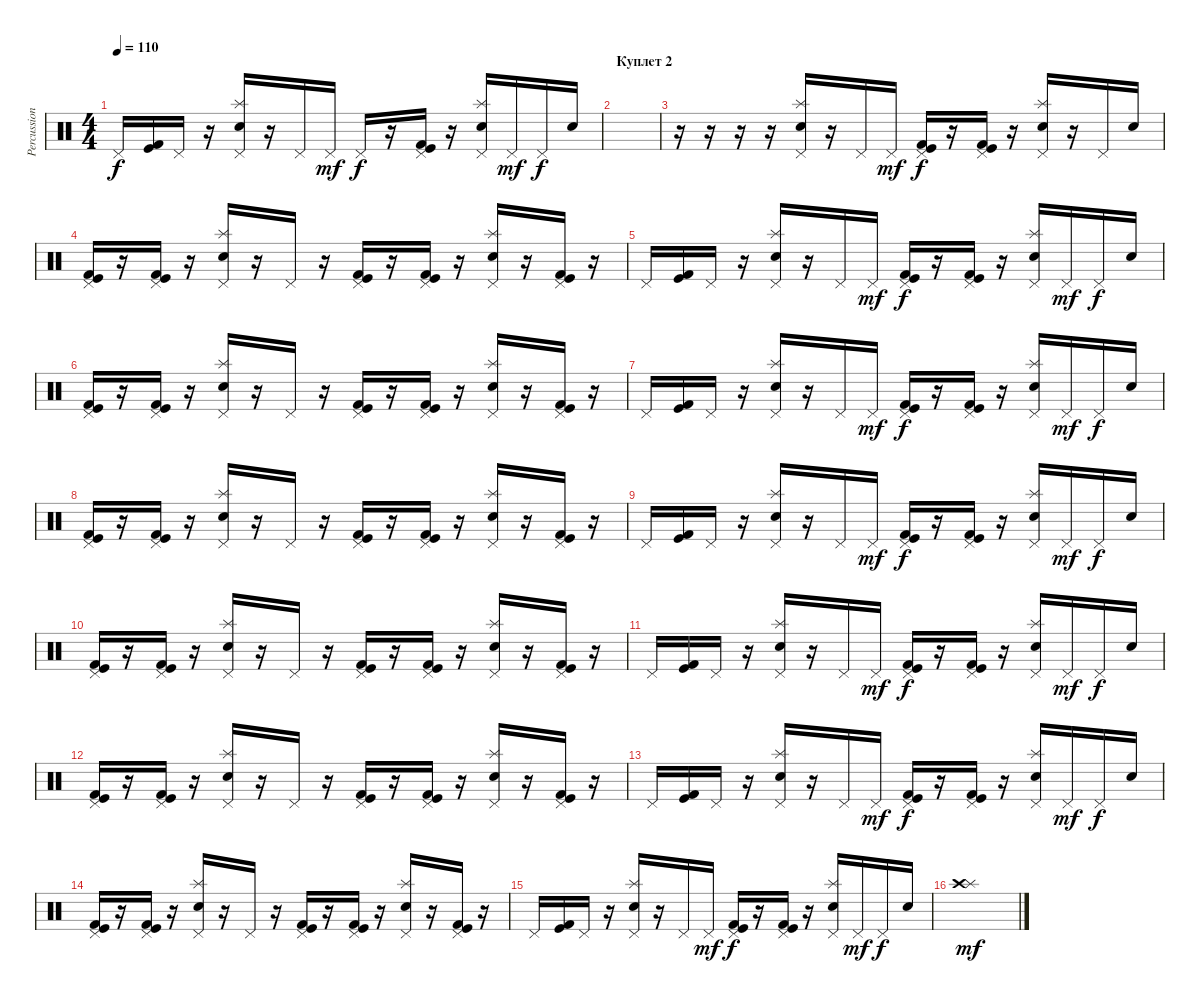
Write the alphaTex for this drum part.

\track ("Percussion" "Percussion") {instrument percussion}
\staff {score}
\articulation defaults
\ts (4 4)
\tempo 110
\clef neutral
\ks c "Pedal Hi-Hat (hit)".16{dy f}
("Kick (hit)" "Kick (hit) 2").16 "Pedal Hi-Hat (hit)".16 r.16 ("Pedal Hi-Hat (hit)" "Splash (hit)" "Snare (hit) 2").16 r.16 "Pedal Hi-Hat (hit)".16 "Pedal Hi-Hat (hit)".16{dy mf} "Pedal Hi-Hat (hit)".16{dy f} r.16 ("Pedal Hi-Hat (hit)" "Kick (hit)" "Kick (hit) 2").16 r.16 ("Pedal Hi-Hat (hit)" "Splash (hit)" "Snare (hit) 2").16 "Pedal Hi-Hat (hit)".16{dy mf} "Pedal Hi-Hat (hit)".16{dy f} "Snare (hit) 2".16 |
\section ("" "Куплет 2")
|
r.16 r.16 r.16 r.16 ("Pedal Hi-Hat (hit)" "Splash (hit)" "Snare (hit) 2").16 r.16 "Pedal Hi-Hat (hit)".16 "Pedal Hi-Hat (hit)".16{dy mf} ("Pedal Hi-Hat (hit)" "Kick (hit) 2" "Kick (hit)").16{dy f} r.16 ("Pedal Hi-Hat (hit)" "Kick (hit)" "Kick (hit) 2").16 r.16 ("Pedal Hi-Hat (hit)" "Splash (hit)" "Snare (hit) 2").16 r.16 "Pedal Hi-Hat (hit)".16 "Snare (hit) 2".16 |
("Pedal Hi-Hat (hit)" "Kick (hit) 2" "Kick (hit)").16 r.16 ("Pedal Hi-Hat (hit)" "Kick (hit)" "Kick (hit) 2").16 r.16 ("Pedal Hi-Hat (hit)" "Splash (hit)" "Snare (hit) 2").16 r.16 "Pedal Hi-Hat (hit)".16 r.16 ("Pedal Hi-Hat (hit)" "Kick (hit)" "Kick (hit) 2").16 r.16 ("Pedal Hi-Hat (hit)" "Kick (hit) 2" "Kick (hit)").16 r.16 ("Pedal Hi-Hat (hit)" "Splash (hit)" "Snare (hit) 2").16 r.16 ("Pedal Hi-Hat (hit)" "Kick (hit)" "Kick (hit) 2").16 r.16 |
"Pedal Hi-Hat (hit)".16 ("Kick (hit)" "Kick (hit) 2").16 "Pedal Hi-Hat (hit)".16 r.16 ("Pedal Hi-Hat (hit)" "Splash (hit)" "Snare (hit) 2").16 r.16 "Pedal Hi-Hat (hit)".16 "Pedal Hi-Hat (hit)".16{dy mf} ("Pedal Hi-Hat (hit)" "Kick (hit) 2" "Kick (hit)").16{dy f} r.16 ("Pedal Hi-Hat (hit)" "Kick (hit)" "Kick (hit) 2").16 r.16 ("Pedal Hi-Hat (hit)" "Splash (hit)" "Snare (hit) 2").16 "Pedal Hi-Hat (hit)".16{dy mf} "Pedal Hi-Hat (hit)".16{dy f} "Snare (hit) 2".16 |
("Pedal Hi-Hat (hit)" "Kick (hit) 2" "Kick (hit)").16 r.16 ("Pedal Hi-Hat (hit)" "Kick (hit)" "Kick (hit) 2").16 r.16 ("Pedal Hi-Hat (hit)" "Splash (hit)" "Snare (hit) 2").16 r.16 "Pedal Hi-Hat (hit)".16 r.16 ("Pedal Hi-Hat (hit)" "Kick (hit)" "Kick (hit) 2").16 r.16 ("Pedal Hi-Hat (hit)" "Kick (hit) 2" "Kick (hit)").16 r.16 ("Pedal Hi-Hat (hit)" "Splash (hit)" "Snare (hit) 2").16 r.16 ("Pedal Hi-Hat (hit)" "Kick (hit)" "Kick (hit) 2").16 r.16 |
"Pedal Hi-Hat (hit)".16 ("Kick (hit)" "Kick (hit) 2").16 "Pedal Hi-Hat (hit)".16 r.16 ("Pedal Hi-Hat (hit)" "Splash (hit)" "Snare (hit) 2").16 r.16 "Pedal Hi-Hat (hit)".16 "Pedal Hi-Hat (hit)".16{dy mf} ("Pedal Hi-Hat (hit)" "Kick (hit) 2" "Kick (hit)").16{dy f} r.16 ("Pedal Hi-Hat (hit)" "Kick (hit)" "Kick (hit) 2").16 r.16 ("Pedal Hi-Hat (hit)" "Splash (hit)" "Snare (hit) 2").16 "Pedal Hi-Hat (hit)".16{dy mf} "Pedal Hi-Hat (hit)".16{dy f} "Snare (hit) 2".16 |
("Pedal Hi-Hat (hit)" "Kick (hit) 2" "Kick (hit)").16 r.16 ("Pedal Hi-Hat (hit)" "Kick (hit)" "Kick (hit) 2").16 r.16 ("Pedal Hi-Hat (hit)" "Splash (hit)" "Snare (hit) 2").16 r.16 "Pedal Hi-Hat (hit)".16 r.16 ("Pedal Hi-Hat (hit)" "Kick (hit)" "Kick (hit) 2").16 r.16 ("Pedal Hi-Hat (hit)" "Kick (hit) 2" "Kick (hit)").16 r.16 ("Pedal Hi-Hat (hit)" "Splash (hit)" "Snare (hit) 2").16 r.16 ("Pedal Hi-Hat (hit)" "Kick (hit)" "Kick (hit) 2").16 r.16 |
"Pedal Hi-Hat (hit)".16 ("Kick (hit)" "Kick (hit) 2").16 "Pedal Hi-Hat (hit)".16 r.16 ("Pedal Hi-Hat (hit)" "Splash (hit)" "Snare (hit) 2").16 r.16 "Pedal Hi-Hat (hit)".16 "Pedal Hi-Hat (hit)".16{dy mf} ("Pedal Hi-Hat (hit)" "Kick (hit) 2" "Kick (hit)").16{dy f} r.16 ("Pedal Hi-Hat (hit)" "Kick (hit)" "Kick (hit) 2").16 r.16 ("Pedal Hi-Hat (hit)" "Splash (hit)" "Snare (hit) 2").16 "Pedal Hi-Hat (hit)".16{dy mf} "Pedal Hi-Hat (hit)".16{dy f} "Snare (hit) 2".16 |
("Pedal Hi-Hat (hit)" "Kick (hit) 2" "Kick (hit)").16 r.16 ("Pedal Hi-Hat (hit)" "Kick (hit)" "Kick (hit) 2").16 r.16 ("Pedal Hi-Hat (hit)" "Splash (hit)" "Snare (hit) 2").16 r.16 "Pedal Hi-Hat (hit)".16 r.16 ("Pedal Hi-Hat (hit)" "Kick (hit)" "Kick (hit) 2").16 r.16 ("Pedal Hi-Hat (hit)" "Kick (hit) 2" "Kick (hit)").16 r.16 ("Pedal Hi-Hat (hit)" "Splash (hit)" "Snare (hit) 2").16 r.16 ("Pedal Hi-Hat (hit)" "Kick (hit)" "Kick (hit) 2").16 r.16 |
"Pedal Hi-Hat (hit)".16 ("Kick (hit)" "Kick (hit) 2").16 "Pedal Hi-Hat (hit)".16 r.16 ("Pedal Hi-Hat (hit)" "Splash (hit)" "Snare (hit) 2").16 r.16 "Pedal Hi-Hat (hit)".16 "Pedal Hi-Hat (hit)".16{dy mf} ("Pedal Hi-Hat (hit)" "Kick (hit) 2" "Kick (hit)").16{dy f} r.16 ("Pedal Hi-Hat (hit)" "Kick (hit)" "Kick (hit) 2").16 r.16 ("Pedal Hi-Hat (hit)" "Splash (hit)" "Snare (hit) 2").16 "Pedal Hi-Hat (hit)".16{dy mf} "Pedal Hi-Hat (hit)".16{dy f} "Snare (hit) 2".16 |
("Pedal Hi-Hat (hit)" "Kick (hit) 2" "Kick (hit)").16 r.16 ("Pedal Hi-Hat (hit)" "Kick (hit)" "Kick (hit) 2").16 r.16 ("Pedal Hi-Hat (hit)" "Splash (hit)" "Snare (hit) 2").16 r.16 "Pedal Hi-Hat (hit)".16 r.16 ("Pedal Hi-Hat (hit)" "Kick (hit)" "Kick (hit) 2").16 r.16 ("Pedal Hi-Hat (hit)" "Kick (hit) 2" "Kick (hit)").16 r.16 ("Pedal Hi-Hat (hit)" "Splash (hit)" "Snare (hit) 2").16 r.16 ("Pedal Hi-Hat (hit)" "Kick (hit)" "Kick (hit) 2").16 r.16 |
"Pedal Hi-Hat (hit)".16 ("Kick (hit)" "Kick (hit) 2").16 "Pedal Hi-Hat (hit)".16 r.16 ("Pedal Hi-Hat (hit)" "Splash (hit)" "Snare (hit) 2").16 r.16 "Pedal Hi-Hat (hit)".16 "Pedal Hi-Hat (hit)".16{dy mf} ("Pedal Hi-Hat (hit)" "Kick (hit) 2" "Kick (hit)").16{dy f} r.16 ("Pedal Hi-Hat (hit)" "Kick (hit)" "Kick (hit) 2").16 r.16 ("Pedal Hi-Hat (hit)" "Splash (hit)" "Snare (hit) 2").16 "Pedal Hi-Hat (hit)".16{dy mf} "Pedal Hi-Hat (hit)".16{dy f} "Snare (hit) 2".16 |
("Pedal Hi-Hat (hit)" "Kick (hit) 2" "Kick (hit)").16 r.16 ("Pedal Hi-Hat (hit)" "Kick (hit)" "Kick (hit) 2").16 r.16 ("Pedal Hi-Hat (hit)" "Splash (hit)" "Snare (hit) 2").16 r.16 "Pedal Hi-Hat (hit)".16 r.16 ("Pedal Hi-Hat (hit)" "Kick (hit)" "Kick (hit) 2").16 r.16 ("Pedal Hi-Hat (hit)" "Kick (hit) 2" "Kick (hit)").16 r.16 ("Pedal Hi-Hat (hit)" "Splash (hit)" "Snare (hit) 2").16 r.16 ("Pedal Hi-Hat (hit)" "Kick (hit)" "Kick (hit) 2").16 r.16 |
"Pedal Hi-Hat (hit)".16 ("Kick (hit)" "Kick (hit) 2").16 "Pedal Hi-Hat (hit)".16 r.16 ("Pedal Hi-Hat (hit)" "Splash (hit)" "Snare (hit) 2").16 r.16 "Pedal Hi-Hat (hit)".16 "Pedal Hi-Hat (hit)".16{dy mf} ("Pedal Hi-Hat (hit)" "Kick (hit) 2" "Kick (hit)").16{dy f} r.16 ("Pedal Hi-Hat (hit)" "Kick (hit)" "Kick (hit) 2").16 r.16 ("Pedal Hi-Hat (hit)" "Splash (hit)" "Snare (hit) 2").16 "Pedal Hi-Hat (hit)".16{dy mf} "Pedal Hi-Hat (hit)".16{dy f} "Snare (hit) 2".16 |
("Splash (hit)" "Crash high (hit)").1{dy mf}
